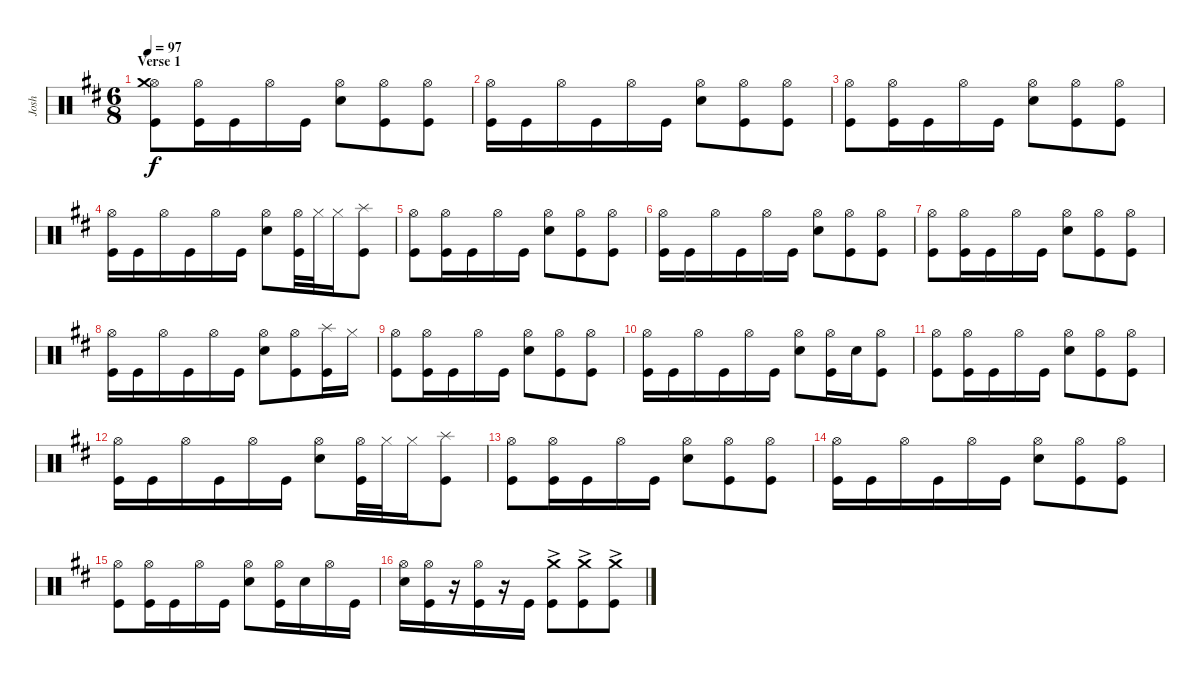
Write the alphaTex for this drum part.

\track ("Josh" "Josh") {instrument percussion}
\staff {score}
\articulation defaults
\ts (6 8)
\section ("" "Verse 1")
\tempo 97
\clef neutral
\ks bminor
("Kick (hit)" "Hi-Hat (open)" "Crash medium (hit)").8{dy f} ("Kick (hit)" "Hi-Hat (open)").16 "Kick (hit)".16 "Hi-Hat (open)".16 "Kick (hit)".16 ("Snare (hit) 2" "Hi-Hat (open)").8 ("Kick (hit)" "Hi-Hat (open)").8 ("Kick (hit)" "Hi-Hat (open)").8 |
("Kick (hit)" "Hi-Hat (open)").16 "Kick (hit)".16 "Hi-Hat (open)".16 "Kick (hit)".16 "Hi-Hat (open)".16 "Kick (hit)".16 ("Snare (hit) 2" "Hi-Hat (open)").8 ("Kick (hit)" "Hi-Hat (open)").8 ("Hi-Hat (open)" "Kick (hit)").8 |
("Kick (hit)" "Hi-Hat (open)").8 ("Kick (hit)" "Hi-Hat (open)").16 "Kick (hit)".16 "Hi-Hat (open)".16 "Kick (hit)".16 ("Snare (hit) 2" "Hi-Hat (open)").8 ("Kick (hit)" "Hi-Hat (open)").8 ("Kick (hit)" "Hi-Hat (open)").8 |
("Kick (hit)" "Hi-Hat (open)").16 "Kick (hit)".16 "Hi-Hat (open)".16 "Kick (hit)".16 "Hi-Hat (open)".16 "Kick (hit)".16 ("Hi-Hat (open)" "Snare (hit) 2").8 ("Kick (hit)" "Hi-Hat (open)").32 "Hi-Hat (closed)".32 "Hi-Hat (closed)".16 ("Kick (hit)" "Splash (hit)").8 |
("Kick (hit)" "Hi-Hat (open)").8 ("Kick (hit)" "Hi-Hat (open)").16 "Kick (hit)".16 "Hi-Hat (open)".16 "Kick (hit)".16 ("Snare (hit) 2" "Hi-Hat (open)").8 ("Kick (hit)" "Hi-Hat (open)").8 ("Kick (hit)" "Hi-Hat (open)").8 |
("Kick (hit)" "Hi-Hat (open)").16 "Kick (hit)".16 "Hi-Hat (open)".16 "Kick (hit)".16 "Hi-Hat (open)".16 "Kick (hit)".16 ("Snare (hit) 2" "Hi-Hat (open)").8 ("Kick (hit)" "Hi-Hat (open)").8 ("Hi-Hat (open)" "Kick (hit)").8 |
("Kick (hit)" "Hi-Hat (open)").8 ("Kick (hit)" "Hi-Hat (open)").16 "Kick (hit)".16 "Hi-Hat (open)".16 "Kick (hit)".16 ("Snare (hit) 2" "Hi-Hat (open)").8 ("Kick (hit)" "Hi-Hat (open)").8 ("Kick (hit)" "Hi-Hat (open)").8 |
("Kick (hit)" "Hi-Hat (open)").16 "Kick (hit)".16 "Hi-Hat (open)".16 "Kick (hit)".16 "Hi-Hat (open)".16 "Kick (hit)".16 ("Hi-Hat (open)" "Snare (hit) 2").8 ("Kick (hit)" "Hi-Hat (open)").8 ("Kick (hit)" "Splash (hit)").16 "Hi-Hat (closed)".16 |
("Kick (hit)" "Hi-Hat (open)").8 ("Kick (hit)" "Hi-Hat (open)").16 "Kick (hit)".16 "Hi-Hat (open)".16 "Kick (hit)".16 ("Snare (hit) 2" "Hi-Hat (open)").8 ("Kick (hit)" "Hi-Hat (open)").8 ("Kick (hit)" "Hi-Hat (open)").8 |
("Kick (hit)" "Hi-Hat (open)").16 "Kick (hit)".16 "Hi-Hat (open)".16 "Kick (hit)".16 "Hi-Hat (open)".16 "Kick (hit)".16 ("Snare (hit) 2" "Hi-Hat (open)").8 ("Kick (hit)" "Hi-Hat (open)").16 "Snare (hit) 2".16 ("Hi-Hat (open)" "Kick (hit)").8 |
("Kick (hit)" "Hi-Hat (open)").8 ("Kick (hit)" "Hi-Hat (open)").16 "Kick (hit)".16 "Hi-Hat (open)".16 "Kick (hit)".16 ("Snare (hit) 2" "Hi-Hat (open)").8 ("Kick (hit)" "Hi-Hat (open)").8 ("Kick (hit)" "Hi-Hat (open)").8 |
("Kick (hit)" "Hi-Hat (open)").16 "Kick (hit)".16 "Hi-Hat (open)".16 "Kick (hit)".16 "Hi-Hat (open)".16 "Kick (hit)".16 ("Hi-Hat (open)" "Snare (hit) 2").8 ("Kick (hit)" "Hi-Hat (open)").32 "Hi-Hat (closed)".32 "Hi-Hat (closed)".16 ("Kick (hit)" "Splash (hit)").8 |
("Kick (hit)" "Hi-Hat (open)").8 ("Kick (hit)" "Hi-Hat (open)").16 "Kick (hit)".16 "Hi-Hat (open)".16 "Kick (hit)".16 ("Snare (hit) 2" "Hi-Hat (open)").8 ("Kick (hit)" "Hi-Hat (open)").8 ("Kick (hit)" "Hi-Hat (open)").8 |
("Kick (hit)" "Hi-Hat (open)").16 "Kick (hit)".16 "Hi-Hat (open)".16 "Kick (hit)".16 "Hi-Hat (open)".16 "Kick (hit)".16 ("Snare (hit) 2" "Hi-Hat (open)").8 ("Kick (hit)" "Hi-Hat (open)").8 ("Hi-Hat (open)" "Kick (hit)").8 |
("Kick (hit)" "Hi-Hat (open)").8 ("Kick (hit)" "Hi-Hat (open)").16 "Kick (hit)".16 "Hi-Hat (open)".16 "Kick (hit)".16 ("Snare (hit) 2" "Hi-Hat (open)").8 ("Kick (hit)" "Hi-Hat (open)").16 "Snare (hit) 2".16 "Hi-Hat (open)".16 "Kick (hit)".16 |
("Snare (hit) 2" "Hi-Hat (open)").16 ("Kick (hit)" "Hi-Hat (open)").16 r.16 ("Kick (hit)" "Hi-Hat (open)").16 r.16 "Kick (hit)".16 ("Kick (hit)"{ac} "Crash medium (hit)"{ac}).8 ("Kick (hit)"{ac} "Crash medium (hit)"{ac}).8 ("Kick (hit)"{ac} "Crash medium (hit)"{ac}).8
